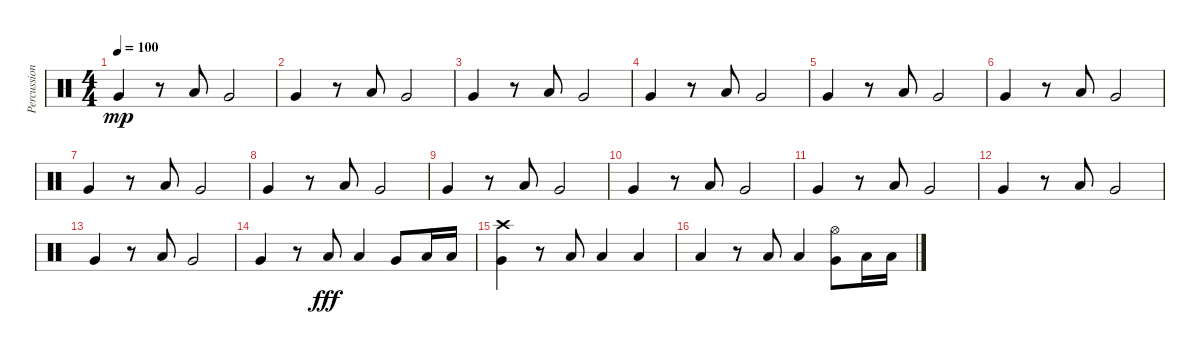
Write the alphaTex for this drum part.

\track ("Percussion" "Percussion") {instrument percussion}
\staff {score}
\articulation defaults
\ts (4 4)
\tempo 100
\clef neutral
\ks c "Very Low Tom (hit)".4{dy mp}
r.8 "Low Tom (hit)".8 "Very Low Tom (hit)".2 |
"Very Low Tom (hit)".4 r.8 "Low Tom (hit)".8 "Very Low Tom (hit)".2 |
"Very Low Tom (hit)".4 r.8 "Low Tom (hit)".8 "Very Low Tom (hit)".2 |
"Very Low Tom (hit)".4 r.8 "Low Tom (hit)".8 "Very Low Tom (hit)".2 |
"Very Low Tom (hit)".4 r.8 "Low Tom (hit)".8 "Very Low Tom (hit)".2 |
"Very Low Tom (hit)".4 r.8 "Low Tom (hit)".8 "Very Low Tom (hit)".2 |
"Very Low Tom (hit)".4 r.8 "Low Tom (hit)".8 "Very Low Tom (hit)".2 |
"Very Low Tom (hit)".4 r.8 "Low Tom (hit)".8 "Very Low Tom (hit)".2 |
"Very Low Tom (hit)".4 r.8 "Low Tom (hit)".8 "Very Low Tom (hit)".2 |
"Very Low Tom (hit)".4 r.8 "Low Tom (hit)".8 "Very Low Tom (hit)".2 |
"Very Low Tom (hit)".4 r.8 "Low Tom (hit)".8 "Very Low Tom (hit)".2 |
"Very Low Tom (hit)".4 r.8 "Low Tom (hit)".8 "Very Low Tom (hit)".2 |
"Very Low Tom (hit)".4 r.8 "Low Tom (hit)".8 "Very Low Tom (hit)".2 |
"Very Low Tom (hit)".4 r.8 "Low Tom (hit)".8{dy fff} "Low Tom (hit)".4 "Very Low Tom (hit)".8 "Low Floor Tom (hit)".16 "Low Floor Tom (hit)".16 |
("Very Low Tom (hit)" "Crash high (hit)").4 r.8 "Low Tom (hit)".8 "Low Tom (hit)".4 "Low Floor Tom (hit)".4 |
"Low Tom (hit)".4 r.8 "Low Tom (hit)".8 "Low Tom (hit)".4 ("Very Low Tom (hit)" "Hi-Hat (open)").8 "Low Floor Tom (hit)".16 "Low Floor Tom (hit)".16
